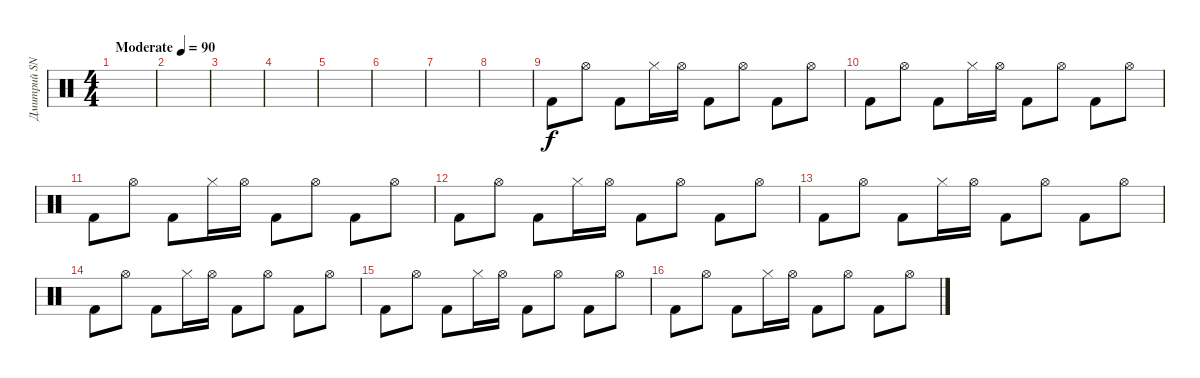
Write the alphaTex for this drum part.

\track ("Дмитрий SNAKE Хакимов" "Дмитрий SN") {instrument percussion}
\staff {score}
\articulation defaults
\ts (4 4)
\tempo (90 "Moderate")
\clef neutral
\ks c
|
|
|
|
|
|
|
|
"Kick (hit) 2".8 "Hi-Hat (open)".8 "Kick (hit) 2".8 "Hi-Hat (closed)".16 "Hi-Hat (open)".16 "Kick (hit) 2".8 "Hi-Hat (open)".8 "Kick (hit) 2".8 "Hi-Hat (open)".8 |
"Kick (hit) 2".8 "Hi-Hat (open)".8 "Kick (hit) 2".8 "Hi-Hat (closed)".16 "Hi-Hat (open)".16 "Kick (hit) 2".8 "Hi-Hat (open)".8 "Kick (hit) 2".8 "Hi-Hat (open)".8 |
"Kick (hit) 2".8 "Hi-Hat (open)".8 "Kick (hit) 2".8 "Hi-Hat (closed)".16 "Hi-Hat (open)".16 "Kick (hit) 2".8 "Hi-Hat (open)".8 "Kick (hit) 2".8 "Hi-Hat (open)".8 |
"Kick (hit) 2".8 "Hi-Hat (open)".8 "Kick (hit) 2".8 "Hi-Hat (closed)".16 "Hi-Hat (open)".16 "Kick (hit) 2".8 "Hi-Hat (open)".8 "Kick (hit) 2".8 "Hi-Hat (open)".8 |
"Kick (hit) 2".8 "Hi-Hat (open)".8 "Kick (hit) 2".8 "Hi-Hat (closed)".16 "Hi-Hat (open)".16 "Kick (hit) 2".8 "Hi-Hat (open)".8 "Kick (hit) 2".8 "Hi-Hat (open)".8 |
"Kick (hit) 2".8 "Hi-Hat (open)".8 "Kick (hit) 2".8 "Hi-Hat (closed)".16 "Hi-Hat (open)".16 "Kick (hit) 2".8 "Hi-Hat (open)".8 "Kick (hit) 2".8 "Hi-Hat (open)".8 |
"Kick (hit) 2".8 "Hi-Hat (open)".8 "Kick (hit) 2".8 "Hi-Hat (closed)".16 "Hi-Hat (open)".16 "Kick (hit) 2".8 "Hi-Hat (open)".8 "Kick (hit) 2".8 "Hi-Hat (open)".8 |
"Kick (hit) 2".8 "Hi-Hat (open)".8 "Kick (hit) 2".8 "Hi-Hat (closed)".16 "Hi-Hat (open)".16 "Kick (hit) 2".8 "Hi-Hat (open)".8 "Kick (hit) 2".8 "Hi-Hat (open)".8
